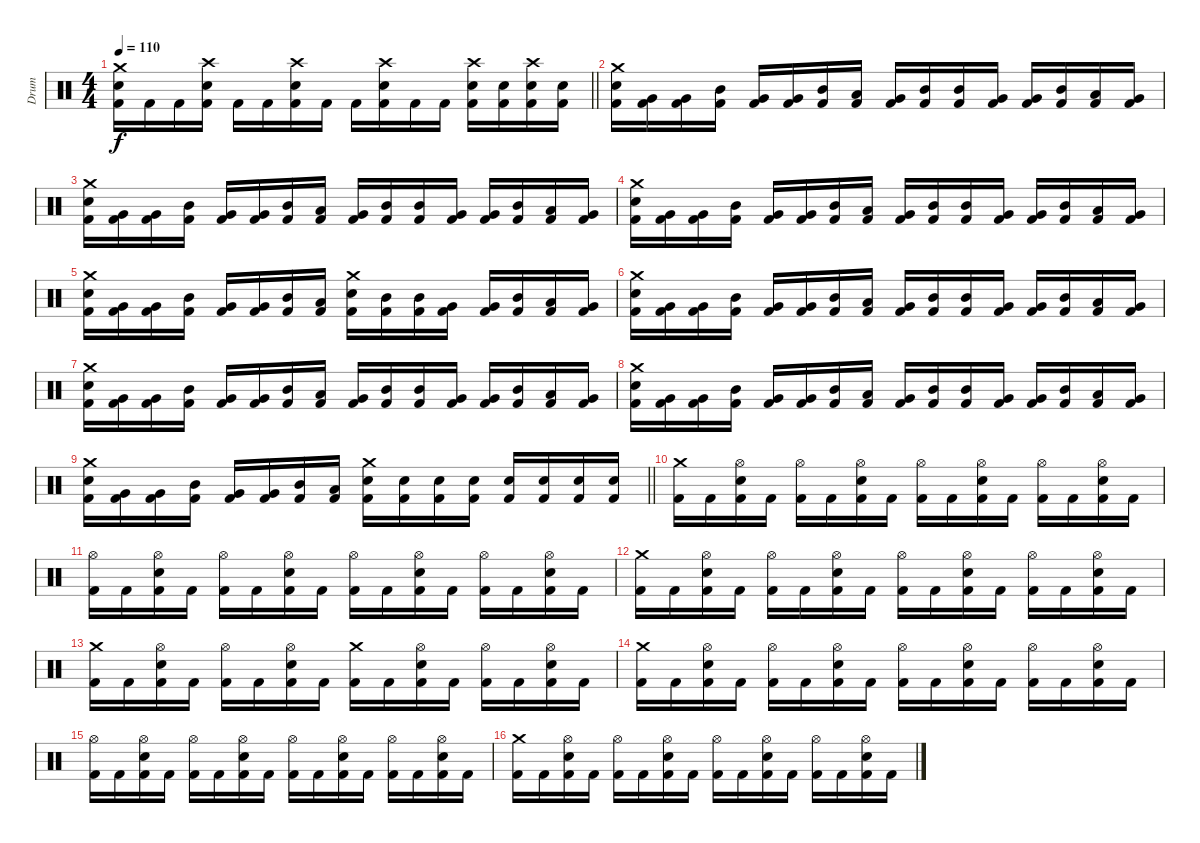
\track ("Drum" "Drum") {instrument percussion}
\staff {score}
\articulation defaults
\ts (4 4)
\tempo 110
\clef neutral
\barLineRight lightlight
\ks c
("Crash medium (hit)" "Electric Snare (hit)" "Kick (hit) 2").16{dy f} "Kick (hit) 2".16 "Kick (hit) 2".16 ("Crash high (hit)" "Electric Snare (hit)" "Kick (hit) 2").16 "Kick (hit) 2".16 "Kick (hit) 2".16 ("Crash high (hit)" "Electric Snare (hit)" "Kick (hit) 2").16 "Kick (hit) 2".16 "Kick (hit) 2".16 ("Crash high (hit)" "Electric Snare (hit)" "Kick (hit) 2").16 "Kick (hit) 2".16 "Kick (hit) 2".16 ("Crash high (hit)" "Electric Snare (hit)" "Kick (hit) 2").16 ("Electric Snare (hit)" "Kick (hit) 2").16 ("Crash high (hit)" "Electric Snare (hit)" "Kick (hit) 2").16 ("Electric Snare (hit)" "Kick (hit) 2").16 |
("Crash medium (hit)" "Electric Snare (hit)" "Kick (hit) 2").16 ("Very Low Tom (hit)" "Kick (hit) 2").16 ("Very Low Tom (hit)" "Kick (hit) 2").16 ("Mid Tom (hit)" "Kick (hit) 2").16 ("Very Low Tom (hit)" "Kick (hit) 2").16 ("Very Low Tom (hit)" "Kick (hit) 2").16 ("Mid Tom (hit)" "Kick (hit) 2").16 ("Low Tom (hit)" "Kick (hit) 2").16 ("Very Low Tom (hit)" "Kick (hit) 2").16 ("Mid Tom (hit)" "Kick (hit) 2").16 ("Mid Tom (hit)" "Kick (hit) 2").16 ("Very Low Tom (hit)" "Kick (hit) 2").16 ("Very Low Tom (hit)" "Kick (hit) 2").16 ("Mid Tom (hit)" "Kick (hit) 2").16 ("Low Tom (hit)" "Kick (hit) 2").16 ("Very Low Tom (hit)" "Kick (hit) 2").16 |
("Crash medium (hit)" "Electric Snare (hit)" "Kick (hit) 2").16 ("Very Low Tom (hit)" "Kick (hit) 2").16 ("Very Low Tom (hit)" "Kick (hit) 2").16 ("Mid Tom (hit)" "Kick (hit) 2").16 ("Very Low Tom (hit)" "Kick (hit) 2").16 ("Very Low Tom (hit)" "Kick (hit) 2").16 ("Mid Tom (hit)" "Kick (hit) 2").16 ("Low Tom (hit)" "Kick (hit) 2").16 ("Very Low Tom (hit)" "Kick (hit) 2").16 ("Mid Tom (hit)" "Kick (hit) 2").16 ("Mid Tom (hit)" "Kick (hit) 2").16 ("Very Low Tom (hit)" "Kick (hit) 2").16 ("Very Low Tom (hit)" "Kick (hit) 2").16 ("Mid Tom (hit)" "Kick (hit) 2").16 ("Low Tom (hit)" "Kick (hit) 2").16 ("Very Low Tom (hit)" "Kick (hit) 2").16 |
("Crash medium (hit)" "Electric Snare (hit)" "Kick (hit) 2").16 ("Very Low Tom (hit)" "Kick (hit) 2").16 ("Very Low Tom (hit)" "Kick (hit) 2").16 ("Mid Tom (hit)" "Kick (hit) 2").16 ("Very Low Tom (hit)" "Kick (hit) 2").16 ("Very Low Tom (hit)" "Kick (hit) 2").16 ("Mid Tom (hit)" "Kick (hit) 2").16 ("Low Tom (hit)" "Kick (hit) 2").16 ("Very Low Tom (hit)" "Kick (hit) 2").16 ("Mid Tom (hit)" "Kick (hit) 2").16 ("Mid Tom (hit)" "Kick (hit) 2").16 ("Very Low Tom (hit)" "Kick (hit) 2").16 ("Very Low Tom (hit)" "Kick (hit) 2").16 ("Mid Tom (hit)" "Kick (hit) 2").16 ("Low Tom (hit)" "Kick (hit) 2").16 ("Very Low Tom (hit)" "Kick (hit) 2").16 |
("Crash medium (hit)" "Electric Snare (hit)" "Kick (hit) 2").16 ("Very Low Tom (hit)" "Kick (hit) 2").16 ("Very Low Tom (hit)" "Kick (hit) 2").16 ("Mid Tom (hit)" "Kick (hit) 2").16 ("Very Low Tom (hit)" "Kick (hit) 2").16 ("Very Low Tom (hit)" "Kick (hit) 2").16 ("Mid Tom (hit)" "Kick (hit) 2").16 ("Low Tom (hit)" "Kick (hit) 2").16 ("Crash medium (hit)" "Electric Snare (hit)" "Kick (hit) 2").16 ("Mid Tom (hit)" "Kick (hit) 2").16 ("Mid Tom (hit)" "Kick (hit) 2").16 ("Very Low Tom (hit)" "Kick (hit) 2").16 ("Very Low Tom (hit)" "Kick (hit) 2").16 ("Mid Tom (hit)" "Kick (hit) 2").16 ("Low Tom (hit)" "Kick (hit) 2").16 ("Very Low Tom (hit)" "Kick (hit) 2").16 |
("Crash medium (hit)" "Electric Snare (hit)" "Kick (hit) 2").16 ("Very Low Tom (hit)" "Kick (hit) 2").16 ("Very Low Tom (hit)" "Kick (hit) 2").16 ("Mid Tom (hit)" "Kick (hit) 2").16 ("Very Low Tom (hit)" "Kick (hit) 2").16 ("Very Low Tom (hit)" "Kick (hit) 2").16 ("Mid Tom (hit)" "Kick (hit) 2").16 ("Low Tom (hit)" "Kick (hit) 2").16 ("Very Low Tom (hit)" "Kick (hit) 2").16 ("Mid Tom (hit)" "Kick (hit) 2").16 ("Mid Tom (hit)" "Kick (hit) 2").16 ("Very Low Tom (hit)" "Kick (hit) 2").16 ("Very Low Tom (hit)" "Kick (hit) 2").16 ("Mid Tom (hit)" "Kick (hit) 2").16 ("Low Tom (hit)" "Kick (hit) 2").16 ("Very Low Tom (hit)" "Kick (hit) 2").16 |
("Crash medium (hit)" "Electric Snare (hit)" "Kick (hit) 2").16 ("Very Low Tom (hit)" "Kick (hit) 2").16 ("Very Low Tom (hit)" "Kick (hit) 2").16 ("Mid Tom (hit)" "Kick (hit) 2").16 ("Very Low Tom (hit)" "Kick (hit) 2").16 ("Very Low Tom (hit)" "Kick (hit) 2").16 ("Mid Tom (hit)" "Kick (hit) 2").16 ("Low Tom (hit)" "Kick (hit) 2").16 ("Very Low Tom (hit)" "Kick (hit) 2").16 ("Mid Tom (hit)" "Kick (hit) 2").16 ("Mid Tom (hit)" "Kick (hit) 2").16 ("Very Low Tom (hit)" "Kick (hit) 2").16 ("Very Low Tom (hit)" "Kick (hit) 2").16 ("Mid Tom (hit)" "Kick (hit) 2").16 ("Low Tom (hit)" "Kick (hit) 2").16 ("Very Low Tom (hit)" "Kick (hit) 2").16 |
("Crash medium (hit)" "Electric Snare (hit)" "Kick (hit) 2").16 ("Very Low Tom (hit)" "Kick (hit) 2").16 ("Very Low Tom (hit)" "Kick (hit) 2").16 ("Mid Tom (hit)" "Kick (hit) 2").16 ("Very Low Tom (hit)" "Kick (hit) 2").16 ("Very Low Tom (hit)" "Kick (hit) 2").16 ("Mid Tom (hit)" "Kick (hit) 2").16 ("Low Tom (hit)" "Kick (hit) 2").16 ("Very Low Tom (hit)" "Kick (hit) 2").16 ("Mid Tom (hit)" "Kick (hit) 2").16 ("Mid Tom (hit)" "Kick (hit) 2").16 ("Very Low Tom (hit)" "Kick (hit) 2").16 ("Very Low Tom (hit)" "Kick (hit) 2").16 ("Mid Tom (hit)" "Kick (hit) 2").16 ("Low Tom (hit)" "Kick (hit) 2").16 ("Very Low Tom (hit)" "Kick (hit) 2").16 |
\barLineRight lightlight
("Crash medium (hit)" "Electric Snare (hit)" "Kick (hit) 2").16 ("Very Low Tom (hit)" "Kick (hit) 2").16 ("Very Low Tom (hit)" "Kick (hit) 2").16 ("Mid Tom (hit)" "Kick (hit) 2").16 ("Very Low Tom (hit)" "Kick (hit) 2").16 ("Very Low Tom (hit)" "Kick (hit) 2").16 ("Mid Tom (hit)" "Kick (hit) 2").16 ("Low Tom (hit)" "Kick (hit) 2").16 ("Crash medium (hit)" "Electric Snare (hit)" "Kick (hit) 2").16 ("Electric Snare (hit)" "Kick (hit) 2").16 ("Electric Snare (hit)" "Kick (hit) 2").16 ("Electric Snare (hit)" "Kick (hit) 2").16 ("Electric Snare (hit)" "Kick (hit) 2").16 ("Electric Snare (hit)" "Kick (hit) 2").16 ("Electric Snare (hit)" "Kick (hit) 2").16 ("Electric Snare (hit)" "Kick (hit) 2").16 |
("Crash medium (hit)" "Kick (hit) 2").16 "Kick (hit) 2".16 ("Hi-Hat (open)" "Electric Snare (hit)" "Kick (hit) 2").16 "Kick (hit) 2".16 ("Hi-Hat (open)" "Kick (hit) 2").16 "Kick (hit) 2".16 ("Hi-Hat (open)" "Electric Snare (hit)" "Kick (hit) 2").16 "Kick (hit) 2".16 ("Hi-Hat (open)" "Kick (hit) 2").16 "Kick (hit) 2".16 ("Hi-Hat (open)" "Electric Snare (hit)" "Kick (hit) 2").16 "Kick (hit) 2".16 ("Hi-Hat (open)" "Kick (hit) 2").16 "Kick (hit) 2".16 ("Hi-Hat (open)" "Electric Snare (hit)" "Kick (hit) 2").16 "Kick (hit) 2".16 |
("Hi-Hat (open)" "Kick (hit) 2").16 "Kick (hit) 2".16 ("Hi-Hat (open)" "Electric Snare (hit)" "Kick (hit) 2").16 "Kick (hit) 2".16 ("Hi-Hat (open)" "Kick (hit) 2").16 "Kick (hit) 2".16 ("Hi-Hat (open)" "Electric Snare (hit)" "Kick (hit) 2").16 "Kick (hit) 2".16 ("Hi-Hat (open)" "Kick (hit) 2").16 "Kick (hit) 2".16 ("Hi-Hat (open)" "Electric Snare (hit)" "Kick (hit) 2").16 "Kick (hit) 2".16 ("Hi-Hat (open)" "Kick (hit) 2").16 "Kick (hit) 2".16 ("Hi-Hat (open)" "Electric Snare (hit)" "Kick (hit) 2").16 "Kick (hit) 2".16 |
("Crash medium (hit)" "Kick (hit) 2").16 "Kick (hit) 2".16 ("Hi-Hat (open)" "Electric Snare (hit)" "Kick (hit) 2").16 "Kick (hit) 2".16 ("Hi-Hat (open)" "Kick (hit) 2").16 "Kick (hit) 2".16 ("Hi-Hat (open)" "Electric Snare (hit)" "Kick (hit) 2").16 "Kick (hit) 2".16 ("Hi-Hat (open)" "Kick (hit) 2").16 "Kick (hit) 2".16 ("Hi-Hat (open)" "Electric Snare (hit)" "Kick (hit) 2").16 "Kick (hit) 2".16 ("Hi-Hat (open)" "Kick (hit) 2").16 "Kick (hit) 2".16 ("Hi-Hat (open)" "Electric Snare (hit)" "Kick (hit) 2").16 "Kick (hit) 2".16 |
("Crash medium (hit)" "Kick (hit) 2").16 "Kick (hit) 2".16 ("Hi-Hat (open)" "Electric Snare (hit)" "Kick (hit) 2").16 "Kick (hit) 2".16 ("Hi-Hat (open)" "Kick (hit) 2").16 "Kick (hit) 2".16 ("Hi-Hat (open)" "Electric Snare (hit)" "Kick (hit) 2").16 "Kick (hit) 2".16 ("Crash medium (hit)" "Kick (hit) 2").16 "Kick (hit) 2".16 ("Hi-Hat (open)" "Electric Snare (hit)" "Kick (hit) 2").16 "Kick (hit) 2".16 ("Hi-Hat (open)" "Kick (hit) 2").16 "Kick (hit) 2".16 ("Hi-Hat (open)" "Electric Snare (hit)" "Kick (hit) 2").16 "Kick (hit) 2".16 |
("Crash medium (hit)" "Kick (hit) 2").16 "Kick (hit) 2".16 ("Hi-Hat (open)" "Electric Snare (hit)" "Kick (hit) 2").16 "Kick (hit) 2".16 ("Hi-Hat (open)" "Kick (hit) 2").16 "Kick (hit) 2".16 ("Hi-Hat (open)" "Electric Snare (hit)" "Kick (hit) 2").16 "Kick (hit) 2".16 ("Hi-Hat (open)" "Kick (hit) 2").16 "Kick (hit) 2".16 ("Hi-Hat (open)" "Electric Snare (hit)" "Kick (hit) 2").16 "Kick (hit) 2".16 ("Hi-Hat (open)" "Kick (hit) 2").16 "Kick (hit) 2".16 ("Hi-Hat (open)" "Electric Snare (hit)" "Kick (hit) 2").16 "Kick (hit) 2".16 |
("Hi-Hat (open)" "Kick (hit) 2").16 "Kick (hit) 2".16 ("Hi-Hat (open)" "Electric Snare (hit)" "Kick (hit) 2").16 "Kick (hit) 2".16 ("Hi-Hat (open)" "Kick (hit) 2").16 "Kick (hit) 2".16 ("Hi-Hat (open)" "Electric Snare (hit)" "Kick (hit) 2").16 "Kick (hit) 2".16 ("Hi-Hat (open)" "Kick (hit) 2").16 "Kick (hit) 2".16 ("Hi-Hat (open)" "Electric Snare (hit)" "Kick (hit) 2").16 "Kick (hit) 2".16 ("Hi-Hat (open)" "Kick (hit) 2").16 "Kick (hit) 2".16 ("Hi-Hat (open)" "Electric Snare (hit)" "Kick (hit) 2").16 "Kick (hit) 2".16 |
("Crash medium (hit)" "Kick (hit) 2").16 "Kick (hit) 2".16 ("Hi-Hat (open)" "Electric Snare (hit)" "Kick (hit) 2").16 "Kick (hit) 2".16 ("Hi-Hat (open)" "Kick (hit) 2").16 "Kick (hit) 2".16 ("Hi-Hat (open)" "Electric Snare (hit)" "Kick (hit) 2").16 "Kick (hit) 2".16 ("Hi-Hat (open)" "Kick (hit) 2").16 "Kick (hit) 2".16 ("Hi-Hat (open)" "Electric Snare (hit)" "Kick (hit) 2").16 "Kick (hit) 2".16 ("Hi-Hat (open)" "Kick (hit) 2").16 "Kick (hit) 2".16 ("Hi-Hat (open)" "Electric Snare (hit)" "Kick (hit) 2").16 "Kick (hit) 2".16
